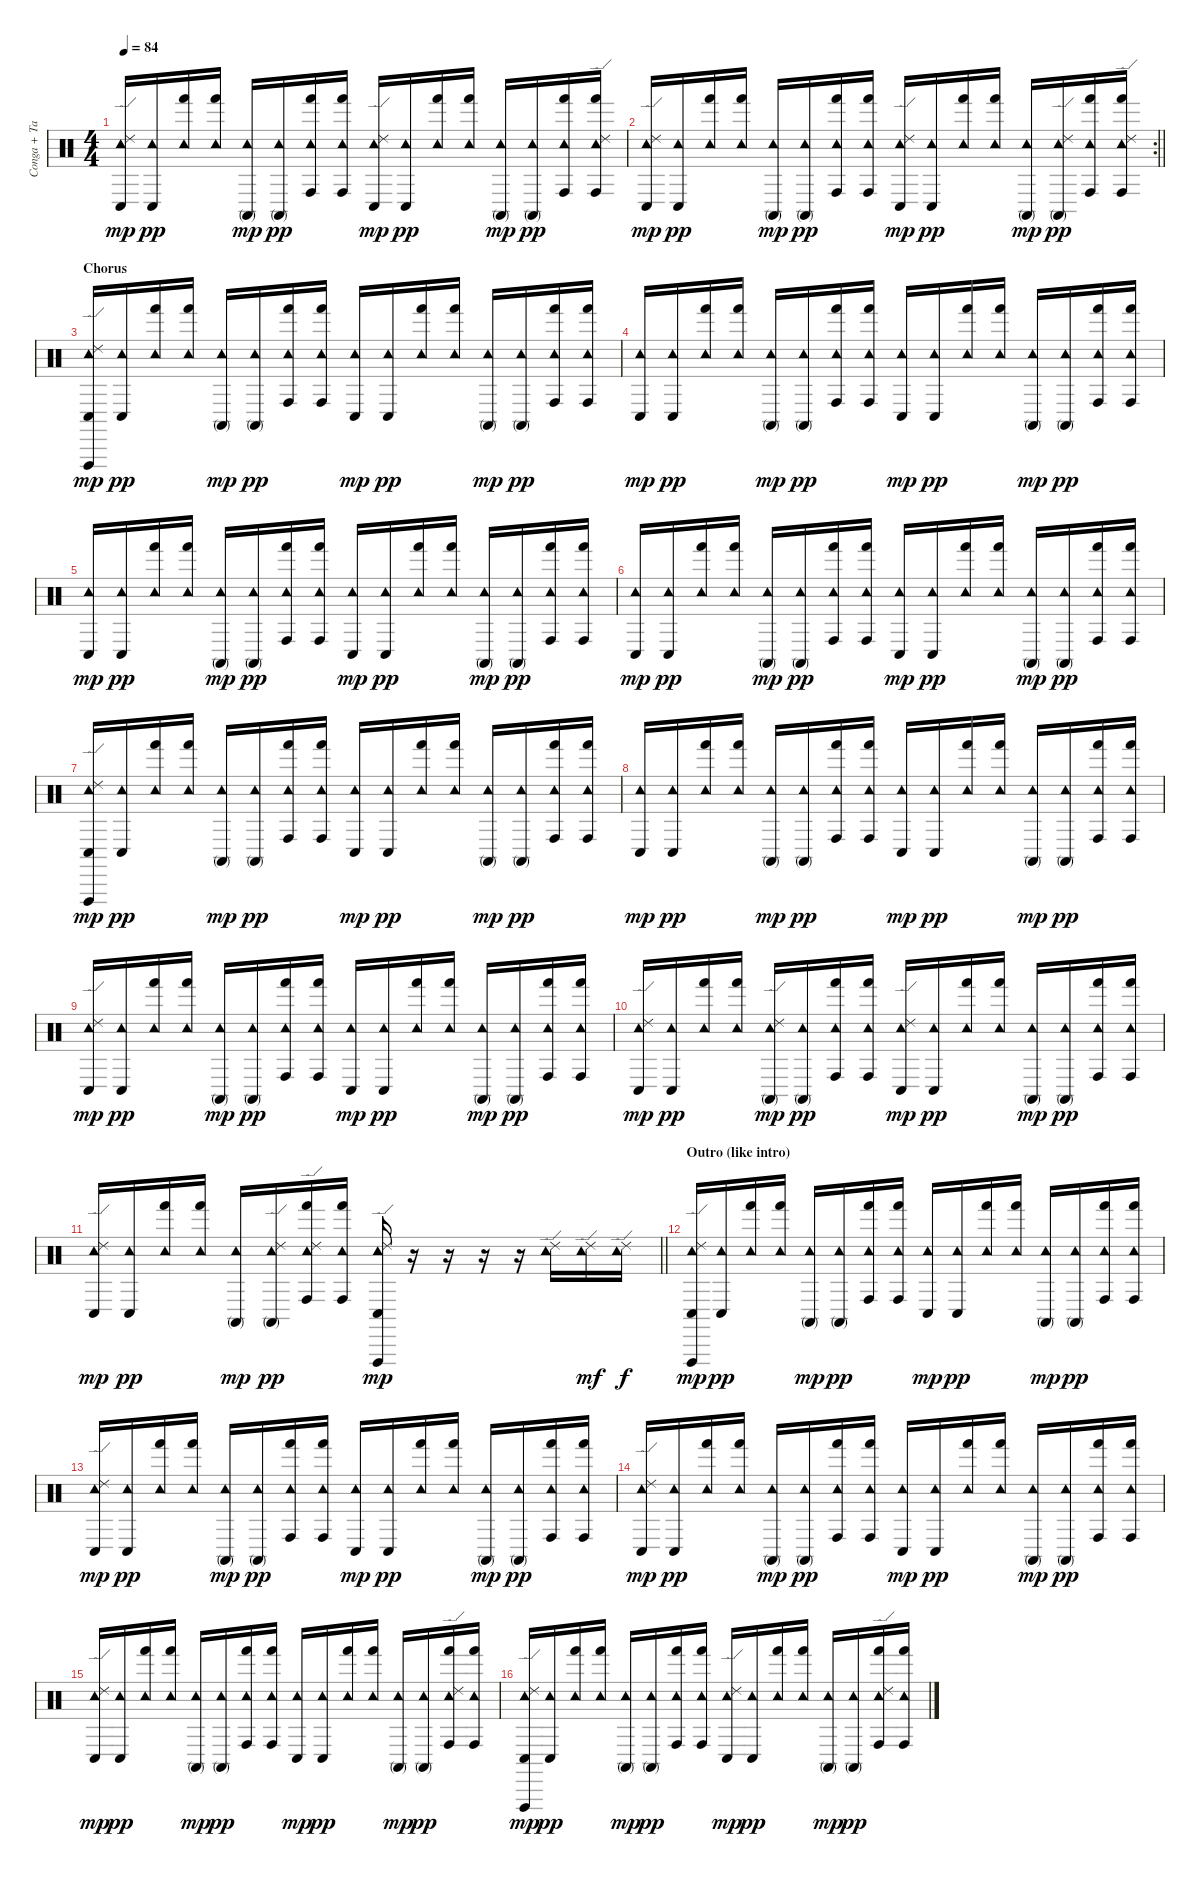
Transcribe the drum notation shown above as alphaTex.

\track ("Conga + Tambourine" "Conga + Ta") {instrument percussion}
\staff {score}
\articulation defaults
\ts (4 4)
\tempo 84
\clef neutral
\ks c
("Conga low (hit)" "Tambourine (hit)" "Ride (edge) 2").16{dy mp} ("Conga low (hit)" "Tambourine (hit)").16{dy pp} ("Hand (hit)" "Tambourine (hit)").16 ("Hand (hit)" "Tambourine (hit)").16 ("Conga high (mute)" "Tambourine (hit)").16{dy mp} ("Conga high (mute)" "Tambourine (hit)").16{dy pp} ("Conga high (hit)" "Hand (hit)" "Tambourine (hit)").16 ("Conga high (hit)" "Hand (hit)" "Tambourine (hit)").16 ("Conga low (hit)" "Tambourine (hit)" "Ride (edge) 2").16{dy mp} ("Conga low (hit)" "Tambourine (hit)").16{dy pp} ("Hand (hit)" "Tambourine (hit)").16 ("Hand (hit)" "Tambourine (hit)").16 ("Conga high (mute)" "Tambourine (hit)").16{dy mp} ("Conga high (mute)" "Tambourine (hit)").16{dy pp} ("Conga high (hit)" "Hand (hit)" "Tambourine (hit)").16 ("Conga high (hit)" "Hand (hit)" "Tambourine (hit)" "Ride (edge) 2").16 |
\rc 2
\barLineRight lightlight
("Conga low (hit)" "Tambourine (hit)" "Ride (edge) 2").16{dy mp} ("Conga low (hit)" "Tambourine (hit)").16{dy pp} ("Hand (hit)" "Tambourine (hit)").16 ("Hand (hit)" "Tambourine (hit)").16 ("Conga high (mute)" "Tambourine (hit)").16{dy mp} ("Conga high (mute)" "Tambourine (hit)").16{dy pp} ("Conga high (hit)" "Hand (hit)" "Tambourine (hit)").16 ("Conga high (hit)" "Hand (hit)" "Tambourine (hit)").16 ("Conga low (hit)" "Tambourine (hit)" "Ride (edge) 2").16{dy mp} ("Conga low (hit)" "Tambourine (hit)").16{dy pp} ("Hand (hit)" "Tambourine (hit)").16 ("Hand (hit)" "Tambourine (hit)").16 ("Conga high (mute)" "Tambourine (hit)").16{dy mp} ("Conga high (mute)" "Tambourine (hit)" "Ride (edge) 2").16{dy pp} ("Conga high (hit)" "Hand (hit)" "Tambourine (hit)").16 ("Conga high (hit)" "Hand (hit)" "Tambourine (hit)" "Ride (edge) 2").16 |
\section ("" "Chorus")
("Conga low (hit)" "Vibraslap (hit)" "Tambourine (hit)" "Ride (edge) 2").16{dy mp} ("Conga low (hit)" "Tambourine (hit)").16{dy pp} ("Hand (hit)" "Tambourine (hit)").16 ("Hand (hit)" "Tambourine (hit)").16 ("Conga high (mute)" "Tambourine (hit)").16{dy mp} ("Conga high (mute)" "Tambourine (hit)").16{dy pp} ("Conga high (hit)" "Hand (hit)" "Tambourine (hit)").16 ("Conga high (hit)" "Hand (hit)" "Tambourine (hit)").16 ("Conga low (hit)" "Tambourine (hit)").16{dy mp} ("Conga low (hit)" "Tambourine (hit)").16{dy pp} ("Hand (hit)" "Tambourine (hit)").16 ("Hand (hit)" "Tambourine (hit)").16 ("Conga high (mute)" "Tambourine (hit)").16{dy mp} ("Conga high (mute)" "Tambourine (hit)").16{dy pp} ("Conga high (hit)" "Hand (hit)" "Tambourine (hit)").16 ("Conga high (hit)" "Hand (hit)" "Tambourine (hit)").16 |
("Conga low (hit)" "Tambourine (hit)").16{dy mp} ("Conga low (hit)" "Tambourine (hit)").16{dy pp} ("Hand (hit)" "Tambourine (hit)").16 ("Hand (hit)" "Tambourine (hit)").16 ("Conga high (mute)" "Tambourine (hit)").16{dy mp} ("Conga high (mute)" "Tambourine (hit)").16{dy pp} ("Conga high (hit)" "Hand (hit)" "Tambourine (hit)").16 ("Conga high (hit)" "Hand (hit)" "Tambourine (hit)").16 ("Conga low (hit)" "Tambourine (hit)").16{dy mp} ("Conga low (hit)" "Tambourine (hit)").16{dy pp} ("Hand (hit)" "Tambourine (hit)").16 ("Hand (hit)" "Tambourine (hit)").16 ("Conga high (mute)" "Tambourine (hit)").16{dy mp} ("Conga high (mute)" "Tambourine (hit)").16{dy pp} ("Conga high (hit)" "Hand (hit)" "Tambourine (hit)").16 ("Conga high (hit)" "Hand (hit)" "Tambourine (hit)").16 |
("Conga low (hit)" "Tambourine (hit)").16{dy mp} ("Conga low (hit)" "Tambourine (hit)").16{dy pp} ("Hand (hit)" "Tambourine (hit)").16 ("Hand (hit)" "Tambourine (hit)").16 ("Conga high (mute)" "Tambourine (hit)").16{dy mp} ("Conga high (mute)" "Tambourine (hit)").16{dy pp} ("Conga high (hit)" "Hand (hit)" "Tambourine (hit)").16 ("Conga high (hit)" "Hand (hit)" "Tambourine (hit)").16 ("Conga low (hit)" "Tambourine (hit)").16{dy mp} ("Conga low (hit)" "Tambourine (hit)").16{dy pp} ("Hand (hit)" "Tambourine (hit)").16 ("Hand (hit)" "Tambourine (hit)").16 ("Conga high (mute)" "Tambourine (hit)").16{dy mp} ("Conga high (mute)" "Tambourine (hit)").16{dy pp} ("Conga high (hit)" "Hand (hit)" "Tambourine (hit)").16 ("Conga high (hit)" "Hand (hit)" "Tambourine (hit)").16 |
("Conga low (hit)" "Tambourine (hit)").16{dy mp} ("Conga low (hit)" "Tambourine (hit)").16{dy pp} ("Hand (hit)" "Tambourine (hit)").16 ("Hand (hit)" "Tambourine (hit)").16 ("Conga high (mute)" "Tambourine (hit)").16{dy mp} ("Conga high (mute)" "Tambourine (hit)").16{dy pp} ("Conga high (hit)" "Hand (hit)" "Tambourine (hit)").16 ("Conga high (hit)" "Hand (hit)" "Tambourine (hit)").16 ("Conga low (hit)" "Tambourine (hit)").16{dy mp} ("Conga low (hit)" "Tambourine (hit)").16{dy pp} ("Hand (hit)" "Tambourine (hit)").16 ("Hand (hit)" "Tambourine (hit)").16 ("Conga high (mute)" "Tambourine (hit)").16{dy mp} ("Conga high (mute)" "Tambourine (hit)").16{dy pp} ("Conga high (hit)" "Hand (hit)" "Tambourine (hit)").16 ("Conga high (hit)" "Hand (hit)" "Tambourine (hit)").16 |
("Conga low (hit)" "Vibraslap (hit)" "Tambourine (hit)" "Ride (edge) 2").16{dy mp} ("Conga low (hit)" "Tambourine (hit)").16{dy pp} ("Hand (hit)" "Tambourine (hit)").16 ("Hand (hit)" "Tambourine (hit)").16 ("Conga high (mute)" "Tambourine (hit)").16{dy mp} ("Conga high (mute)" "Tambourine (hit)").16{dy pp} ("Conga high (hit)" "Hand (hit)" "Tambourine (hit)").16 ("Conga high (hit)" "Hand (hit)" "Tambourine (hit)").16 ("Conga low (hit)" "Tambourine (hit)").16{dy mp} ("Conga low (hit)" "Tambourine (hit)").16{dy pp} ("Hand (hit)" "Tambourine (hit)").16 ("Hand (hit)" "Tambourine (hit)").16 ("Conga high (mute)" "Tambourine (hit)").16{dy mp} ("Conga high (mute)" "Tambourine (hit)").16{dy pp} ("Conga high (hit)" "Hand (hit)" "Tambourine (hit)").16 ("Conga high (hit)" "Hand (hit)" "Tambourine (hit)").16 |
("Conga low (hit)" "Tambourine (hit)").16{dy mp} ("Conga low (hit)" "Tambourine (hit)").16{dy pp} ("Hand (hit)" "Tambourine (hit)").16 ("Hand (hit)" "Tambourine (hit)").16 ("Conga high (mute)" "Tambourine (hit)").16{dy mp} ("Conga high (mute)" "Tambourine (hit)").16{dy pp} ("Conga high (hit)" "Hand (hit)" "Tambourine (hit)").16 ("Conga high (hit)" "Hand (hit)" "Tambourine (hit)").16 ("Conga low (hit)" "Tambourine (hit)").16{dy mp} ("Conga low (hit)" "Tambourine (hit)").16{dy pp} ("Hand (hit)" "Tambourine (hit)").16 ("Hand (hit)" "Tambourine (hit)").16 ("Conga high (mute)" "Tambourine (hit)").16{dy mp} ("Conga high (mute)" "Tambourine (hit)").16{dy pp} ("Conga high (hit)" "Hand (hit)" "Tambourine (hit)").16 ("Conga high (hit)" "Hand (hit)" "Tambourine (hit)").16 |
("Conga low (hit)" "Tambourine (hit)" "Ride (edge) 2").16{dy mp} ("Conga low (hit)" "Tambourine (hit)").16{dy pp} ("Hand (hit)" "Tambourine (hit)").16 ("Hand (hit)" "Tambourine (hit)").16 ("Conga high (mute)" "Tambourine (hit)").16{dy mp} ("Conga high (mute)" "Tambourine (hit)").16{dy pp} ("Conga high (hit)" "Hand (hit)" "Tambourine (hit)").16 ("Conga high (hit)" "Hand (hit)" "Tambourine (hit)").16 ("Conga low (hit)" "Tambourine (hit)").16{dy mp} ("Conga low (hit)" "Tambourine (hit)").16{dy pp} ("Hand (hit)" "Tambourine (hit)").16 ("Hand (hit)" "Tambourine (hit)").16 ("Conga high (mute)" "Tambourine (hit)").16{dy mp} ("Conga high (mute)" "Tambourine (hit)").16{dy pp} ("Conga high (hit)" "Hand (hit)" "Tambourine (hit)").16 ("Conga high (hit)" "Hand (hit)" "Tambourine (hit)").16 |
("Conga low (hit)" "Tambourine (hit)" "Ride (edge) 2").16{dy mp} ("Conga low (hit)" "Tambourine (hit)").16{dy pp} ("Hand (hit)" "Tambourine (hit)").16 ("Hand (hit)" "Tambourine (hit)").16 ("Conga high (mute)" "Tambourine (hit)" "Ride (edge) 2").16{dy mp} ("Conga high (mute)" "Tambourine (hit)").16{dy pp} ("Conga high (hit)" "Hand (hit)" "Tambourine (hit)").16 ("Conga high (hit)" "Hand (hit)" "Tambourine (hit)").16 ("Conga low (hit)" "Tambourine (hit)" "Ride (edge) 2").16{dy mp} ("Conga low (hit)" "Tambourine (hit)").16{dy pp} ("Hand (hit)" "Tambourine (hit)").16 ("Hand (hit)" "Tambourine (hit)").16 ("Conga high (mute)" "Tambourine (hit)").16{dy mp} ("Conga high (mute)" "Tambourine (hit)").16{dy pp} ("Conga high (hit)" "Hand (hit)" "Tambourine (hit)").16 ("Conga high (hit)" "Hand (hit)" "Tambourine (hit)").16 |
\barLineRight lightlight
("Conga low (hit)" "Tambourine (hit)" "Ride (edge) 2").16{dy mp} ("Conga low (hit)" "Tambourine (hit)").16{dy pp} ("Hand (hit)" "Tambourine (hit)").16 ("Hand (hit)" "Tambourine (hit)").16 ("Conga high (mute)" "Tambourine (hit)").16{dy mp} ("Conga high (mute)" "Tambourine (hit)" "Ride (edge) 2").16{dy pp} ("Conga high (hit)" "Hand (hit)" "Tambourine (hit)" "Ride (edge) 2").16 ("Conga high (hit)" "Hand (hit)" "Tambourine (hit)").16 ("Conga low (hit)" "Vibraslap (hit)" "Tambourine (hit)" "Ride (edge) 2").16{dy mp} r.16 r.16 r.16 r.16 ("Tambourine (hit)" "Ride (edge) 2").16 ("Tambourine (hit)" "Ride (edge) 2").16{dy mf} ("Tambourine (hit)" "Ride (edge) 2").16{dy f} |
\section ("" "Outro (like intro)")
("Conga low (hit)" "Vibraslap (hit)" "Tambourine (hit)" "Ride (edge) 2").16{dy mp} ("Conga low (hit)" "Tambourine (hit)").16{dy pp} ("Hand (hit)" "Tambourine (hit)").16 ("Hand (hit)" "Tambourine (hit)").16 ("Conga high (mute)" "Tambourine (hit)").16{dy mp} ("Conga high (mute)" "Tambourine (hit)").16{dy pp} ("Conga high (hit)" "Hand (hit)" "Tambourine (hit)").16 ("Conga high (hit)" "Hand (hit)" "Tambourine (hit)").16 ("Conga low (hit)" "Tambourine (hit)").16{dy mp} ("Conga low (hit)" "Tambourine (hit)").16{dy pp} ("Hand (hit)" "Tambourine (hit)").16 ("Hand (hit)" "Tambourine (hit)").16 ("Conga high (mute)" "Tambourine (hit)").16{dy mp} ("Conga high (mute)" "Tambourine (hit)").16{dy pp} ("Conga high (hit)" "Hand (hit)" "Tambourine (hit)").16 ("Conga high (hit)" "Hand (hit)" "Tambourine (hit)").16 |
("Conga low (hit)" "Tambourine (hit)" "Ride (edge) 2").16{dy mp} ("Conga low (hit)" "Tambourine (hit)").16{dy pp} ("Hand (hit)" "Tambourine (hit)").16 ("Hand (hit)" "Tambourine (hit)").16 ("Conga high (mute)" "Tambourine (hit)").16{dy mp} ("Conga high (mute)" "Tambourine (hit)").16{dy pp} ("Conga high (hit)" "Hand (hit)" "Tambourine (hit)").16 ("Conga high (hit)" "Hand (hit)" "Tambourine (hit)").16 ("Conga low (hit)" "Tambourine (hit)").16{dy mp} ("Conga low (hit)" "Tambourine (hit)").16{dy pp} ("Hand (hit)" "Tambourine (hit)").16 ("Hand (hit)" "Tambourine (hit)").16 ("Conga high (mute)" "Tambourine (hit)").16{dy mp} ("Conga high (mute)" "Tambourine (hit)").16{dy pp} ("Conga high (hit)" "Hand (hit)" "Tambourine (hit)").16 ("Conga high (hit)" "Hand (hit)" "Tambourine (hit)").16 |
("Conga low (hit)" "Tambourine (hit)" "Ride (edge) 2").16{dy mp} ("Conga low (hit)" "Tambourine (hit)").16{dy pp} ("Hand (hit)" "Tambourine (hit)").16 ("Hand (hit)" "Tambourine (hit)").16 ("Conga high (mute)" "Tambourine (hit)").16{dy mp} ("Conga high (mute)" "Tambourine (hit)").16{dy pp} ("Conga high (hit)" "Hand (hit)" "Tambourine (hit)").16 ("Conga high (hit)" "Hand (hit)" "Tambourine (hit)").16 ("Conga low (hit)" "Tambourine (hit)").16{dy mp} ("Conga low (hit)" "Tambourine (hit)").16{dy pp} ("Hand (hit)" "Tambourine (hit)").16 ("Hand (hit)" "Tambourine (hit)").16 ("Conga high (mute)" "Tambourine (hit)").16{dy mp} ("Conga high (mute)" "Tambourine (hit)").16{dy pp} ("Conga high (hit)" "Hand (hit)" "Tambourine (hit)").16 ("Conga high (hit)" "Hand (hit)" "Tambourine (hit)").16 |
("Conga low (hit)" "Tambourine (hit)" "Ride (edge) 2").16{dy mp} ("Conga low (hit)" "Tambourine (hit)").16{dy pp} ("Hand (hit)" "Tambourine (hit)").16 ("Hand (hit)" "Tambourine (hit)").16 ("Conga high (mute)" "Tambourine (hit)").16{dy mp} ("Conga high (mute)" "Tambourine (hit)").16{dy pp} ("Conga high (hit)" "Hand (hit)" "Tambourine (hit)").16 ("Conga high (hit)" "Hand (hit)" "Tambourine (hit)").16 ("Conga low (hit)" "Tambourine (hit)").16{dy mp} ("Conga low (hit)" "Tambourine (hit)").16{dy pp} ("Hand (hit)" "Tambourine (hit)").16 ("Hand (hit)" "Tambourine (hit)").16 ("Conga high (mute)" "Tambourine (hit)").16{dy mp} ("Conga high (mute)" "Tambourine (hit)").16{dy pp} ("Conga high (hit)" "Hand (hit)" "Tambourine (hit)" "Ride (edge) 2").16 ("Conga high (hit)" "Hand (hit)" "Tambourine (hit)").16 |
("Conga low (hit)" "Vibraslap (hit)" "Tambourine (hit)" "Ride (edge) 2").16{dy mp} ("Conga low (hit)" "Tambourine (hit)").16{dy pp} ("Hand (hit)" "Tambourine (hit)").16 ("Hand (hit)" "Tambourine (hit)").16 ("Conga high (mute)" "Tambourine (hit)").16{dy mp} ("Conga high (mute)" "Tambourine (hit)").16{dy pp} ("Conga high (hit)" "Hand (hit)" "Tambourine (hit)").16 ("Conga high (hit)" "Hand (hit)" "Tambourine (hit)").16 ("Conga low (hit)" "Tambourine (hit)" "Ride (edge) 2").16{dy mp} ("Conga low (hit)" "Tambourine (hit)").16{dy pp} ("Hand (hit)" "Tambourine (hit)").16 ("Hand (hit)" "Tambourine (hit)").16 ("Conga high (mute)" "Tambourine (hit)").16{dy mp} ("Conga high (mute)" "Tambourine (hit)").16{dy pp} ("Conga high (hit)" "Hand (hit)" "Tambourine (hit)" "Ride (edge) 2").16 ("Conga high (hit)" "Hand (hit)" "Tambourine (hit)").16
